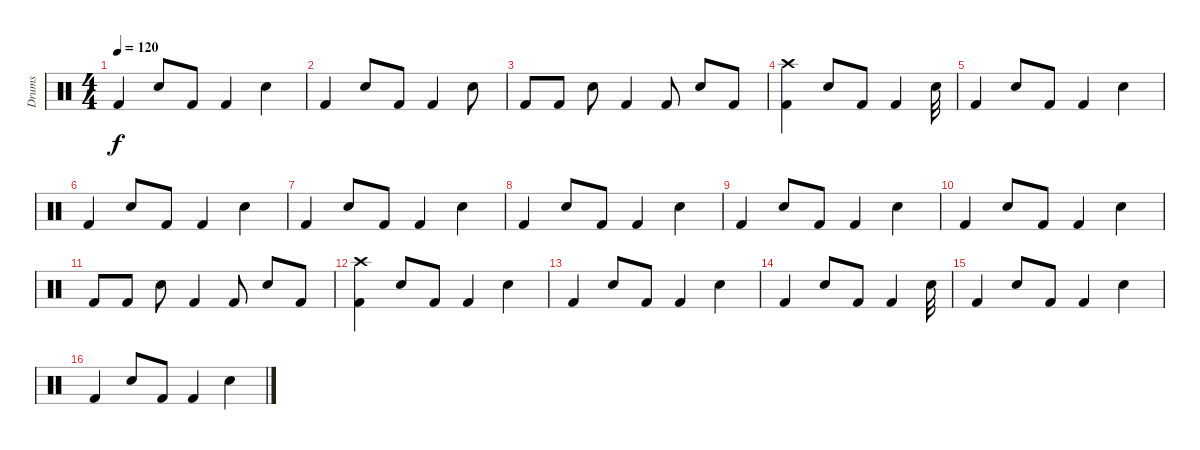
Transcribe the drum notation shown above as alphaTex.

\track ("Drums" "Drums") {instrument percussion}
\staff {score}
\articulation defaults
\ts (4 4)
\tempo 120
\clef neutral
\ks c "Kick (hit) 2".4{dy f} "Electric Snare (hit)".8 "Kick (hit) 2".8 "Kick (hit) 2".4 "Electric Snare (hit)".4
|
"Kick (hit) 2".4 "Electric Snare (hit)".8 "Kick (hit) 2".8 "Kick (hit) 2".4 "Electric Snare (hit)".8 |
"Kick (hit) 2".8 "Kick (hit) 2".8 "Electric Snare (hit)".8 "Kick (hit) 2".4 "Kick (hit) 2".8 "Electric Snare (hit)".8 "Kick (hit) 2".8 |
("Crash high (hit)" "Kick (hit) 2").4 "Electric Snare (hit)".8 "Kick (hit) 2".8 "Kick (hit) 2".4 "Electric Snare (hit)".32 |
"Kick (hit) 2".4 "Electric Snare (hit)".8 "Kick (hit) 2".8 "Kick (hit) 2".4 "Electric Snare (hit)".4 |
"Kick (hit) 2".4 "Electric Snare (hit)".8 "Kick (hit) 2".8 "Kick (hit) 2".4 "Electric Snare (hit)".4 |
"Kick (hit) 2".4 "Electric Snare (hit)".8 "Kick (hit) 2".8 "Kick (hit) 2".4 "Electric Snare (hit)".4 |
"Kick (hit) 2".4 "Electric Snare (hit)".8 "Kick (hit) 2".8 "Kick (hit) 2".4 "Electric Snare (hit)".4 |
"Kick (hit) 2".4 "Electric Snare (hit)".8 "Kick (hit) 2".8 "Kick (hit) 2".4 "Electric Snare (hit)".4 |
"Kick (hit) 2".4 "Electric Snare (hit)".8 "Kick (hit) 2".8 "Kick (hit) 2".4 "Electric Snare (hit)".4 |
"Kick (hit) 2".8 "Kick (hit) 2".8 "Electric Snare (hit)".8 "Kick (hit) 2".4 "Kick (hit) 2".8 "Electric Snare (hit)".8 "Kick (hit) 2".8 |
("Crash high (hit)" "Kick (hit) 2").4 "Electric Snare (hit)".8 "Kick (hit) 2".8 "Kick (hit) 2".4 "Electric Snare (hit)".4 |
"Kick (hit) 2".4 "Electric Snare (hit)".8 "Kick (hit) 2".8 "Kick (hit) 2".4 "Electric Snare (hit)".4 |
"Kick (hit) 2".4 "Electric Snare (hit)".8 "Kick (hit) 2".8 "Kick (hit) 2".4 "Electric Snare (hit)".32 |
"Kick (hit) 2".4 "Electric Snare (hit)".8 "Kick (hit) 2".8 "Kick (hit) 2".4 "Electric Snare (hit)".4 |
"Kick (hit) 2".4 "Electric Snare (hit)".8 "Kick (hit) 2".8 "Kick (hit) 2".4 "Electric Snare (hit)".4
